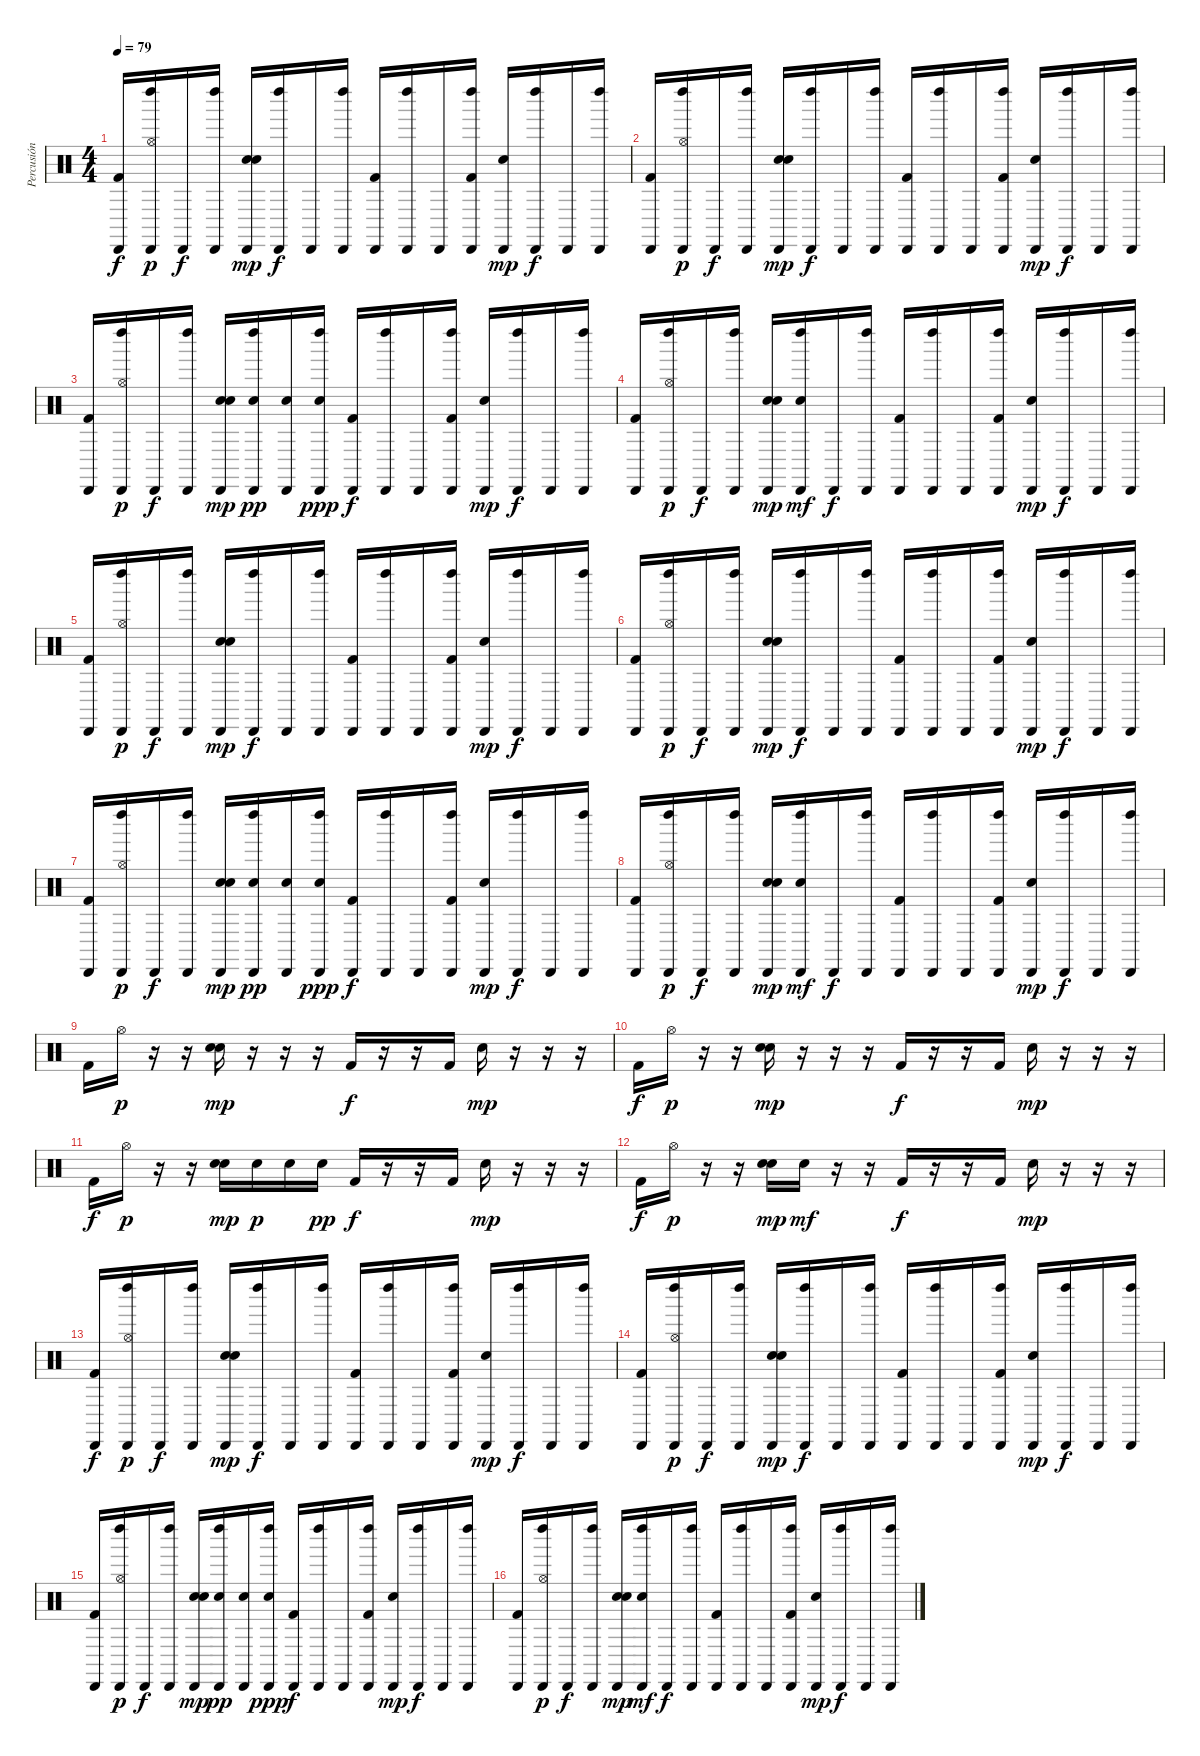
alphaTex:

\track ("Percusión" "Percusión") {instrument percussion}
\staff {score}
\articulation defaults
\ts (4 4)
\tempo 79
\clef neutral
\ks c
("Cabasa (hit)" "Kick (hit) 2").16{dy f} ("Cabasa (hit)" "Left Maraca (hit)" "Hi-Hat (open)").16{dy p} "Cabasa (hit)".16{dy f} ("Cabasa (hit)" "Left Maraca (hit)").16 ("Cabasa (hit)" "Electric Snare (hit)" "Snare (hit) 2").16{dy mp} ("Cabasa (hit)" "Left Maraca (hit)").16{dy f} "Cabasa (hit)".16 ("Cabasa (hit)" "Left Maraca (hit)").16 ("Cabasa (hit)" "Kick (hit) 2").16 ("Cabasa (hit)" "Left Maraca (hit)").16 "Cabasa (hit)".16 ("Cabasa (hit)" "Left Maraca (hit)" "Kick (hit) 2").16 ("Cabasa (hit)" "Electric Snare (hit)").16{dy mp} ("Cabasa (hit)" "Left Maraca (hit)").16{dy f} "Cabasa (hit)".16 ("Cabasa (hit)" "Left Maraca (hit)").16 |
("Cabasa (hit)" "Kick (hit) 2").16 ("Cabasa (hit)" "Left Maraca (hit)" "Hi-Hat (open)").16{dy p} "Cabasa (hit)".16{dy f} ("Cabasa (hit)" "Left Maraca (hit)").16 ("Cabasa (hit)" "Electric Snare (hit)" "Snare (hit) 2").16{dy mp} ("Cabasa (hit)" "Left Maraca (hit)").16{dy f} "Cabasa (hit)".16 ("Cabasa (hit)" "Left Maraca (hit)").16 ("Cabasa (hit)" "Kick (hit) 2").16 ("Cabasa (hit)" "Left Maraca (hit)").16 "Cabasa (hit)".16 ("Cabasa (hit)" "Left Maraca (hit)" "Kick (hit) 2").16 ("Cabasa (hit)" "Electric Snare (hit)").16{dy mp} ("Cabasa (hit)" "Left Maraca (hit)").16{dy f} "Cabasa (hit)".16 ("Cabasa (hit)" "Left Maraca (hit)").16 |
("Cabasa (hit)" "Kick (hit) 2").16 ("Cabasa (hit)" "Left Maraca (hit)" "Hi-Hat (open)").16{dy p} "Cabasa (hit)".16{dy f} ("Cabasa (hit)" "Left Maraca (hit)").16 ("Cabasa (hit)" "Electric Snare (hit)" "Snare (hit) 2").16{dy mp} ("Cabasa (hit)" "Left Maraca (hit)" "Electric Snare (hit)").16{dy pp} ("Cabasa (hit)" "Electric Snare (hit)").16 ("Cabasa (hit)" "Left Maraca (hit)" "Electric Snare (hit)").16{dy ppp} ("Cabasa (hit)" "Kick (hit) 2").16{dy f} ("Cabasa (hit)" "Left Maraca (hit)").16 "Cabasa (hit)".16 ("Cabasa (hit)" "Left Maraca (hit)" "Kick (hit) 2").16 ("Cabasa (hit)" "Electric Snare (hit)").16{dy mp} ("Cabasa (hit)" "Left Maraca (hit)").16{dy f} "Cabasa (hit)".16 ("Cabasa (hit)" "Left Maraca (hit)").16 |
("Cabasa (hit)" "Kick (hit) 2").16 ("Cabasa (hit)" "Left Maraca (hit)" "Hi-Hat (open)").16{dy p} "Cabasa (hit)".16{dy f} ("Cabasa (hit)" "Left Maraca (hit)").16 ("Cabasa (hit)" "Electric Snare (hit)" "Snare (hit) 2").16{dy mp} ("Cabasa (hit)" "Left Maraca (hit)" "Electric Snare (hit)").16{dy mf} "Cabasa (hit)".16{dy f} ("Cabasa (hit)" "Left Maraca (hit)").16 ("Cabasa (hit)" "Kick (hit) 2").16 ("Cabasa (hit)" "Left Maraca (hit)").16 "Cabasa (hit)".16 ("Cabasa (hit)" "Left Maraca (hit)" "Kick (hit) 2").16 ("Cabasa (hit)" "Electric Snare (hit)").16{dy mp} ("Cabasa (hit)" "Left Maraca (hit)").16{dy f} "Cabasa (hit)".16 ("Cabasa (hit)" "Left Maraca (hit)").16 |
("Cabasa (hit)" "Kick (hit) 2").16 ("Cabasa (hit)" "Left Maraca (hit)" "Hi-Hat (open)").16{dy p} "Cabasa (hit)".16{dy f} ("Cabasa (hit)" "Left Maraca (hit)").16 ("Cabasa (hit)" "Electric Snare (hit)" "Snare (hit) 2").16{dy mp} ("Cabasa (hit)" "Left Maraca (hit)").16{dy f} "Cabasa (hit)".16 ("Cabasa (hit)" "Left Maraca (hit)").16 ("Cabasa (hit)" "Kick (hit) 2").16 ("Cabasa (hit)" "Left Maraca (hit)").16 "Cabasa (hit)".16 ("Cabasa (hit)" "Left Maraca (hit)" "Kick (hit) 2").16 ("Cabasa (hit)" "Electric Snare (hit)").16{dy mp} ("Cabasa (hit)" "Left Maraca (hit)").16{dy f} "Cabasa (hit)".16 ("Cabasa (hit)" "Left Maraca (hit)").16 |
("Cabasa (hit)" "Kick (hit) 2").16 ("Cabasa (hit)" "Left Maraca (hit)" "Hi-Hat (open)").16{dy p} "Cabasa (hit)".16{dy f} ("Cabasa (hit)" "Left Maraca (hit)").16 ("Cabasa (hit)" "Electric Snare (hit)" "Snare (hit) 2").16{dy mp} ("Cabasa (hit)" "Left Maraca (hit)").16{dy f} "Cabasa (hit)".16 ("Cabasa (hit)" "Left Maraca (hit)").16 ("Cabasa (hit)" "Kick (hit) 2").16 ("Cabasa (hit)" "Left Maraca (hit)").16 "Cabasa (hit)".16 ("Cabasa (hit)" "Left Maraca (hit)" "Kick (hit) 2").16 ("Cabasa (hit)" "Electric Snare (hit)").16{dy mp} ("Cabasa (hit)" "Left Maraca (hit)").16{dy f} "Cabasa (hit)".16 ("Cabasa (hit)" "Left Maraca (hit)").16 |
("Cabasa (hit)" "Kick (hit) 2").16 ("Cabasa (hit)" "Left Maraca (hit)" "Hi-Hat (open)").16{dy p} "Cabasa (hit)".16{dy f} ("Cabasa (hit)" "Left Maraca (hit)").16 ("Cabasa (hit)" "Electric Snare (hit)" "Snare (hit) 2").16{dy mp} ("Cabasa (hit)" "Left Maraca (hit)" "Electric Snare (hit)").16{dy pp} ("Cabasa (hit)" "Electric Snare (hit)").16 ("Cabasa (hit)" "Left Maraca (hit)" "Electric Snare (hit)").16{dy ppp} ("Cabasa (hit)" "Kick (hit) 2").16{dy f} ("Cabasa (hit)" "Left Maraca (hit)").16 "Cabasa (hit)".16 ("Cabasa (hit)" "Left Maraca (hit)" "Kick (hit) 2").16 ("Cabasa (hit)" "Electric Snare (hit)").16{dy mp} ("Cabasa (hit)" "Left Maraca (hit)").16{dy f} "Cabasa (hit)".16 ("Cabasa (hit)" "Left Maraca (hit)").16 |
("Cabasa (hit)" "Kick (hit) 2").16 ("Cabasa (hit)" "Left Maraca (hit)" "Hi-Hat (open)").16{dy p} "Cabasa (hit)".16{dy f} ("Cabasa (hit)" "Left Maraca (hit)").16 ("Cabasa (hit)" "Electric Snare (hit)" "Snare (hit) 2").16{dy mp} ("Cabasa (hit)" "Left Maraca (hit)" "Electric Snare (hit)").16{dy mf} "Cabasa (hit)".16{dy f} ("Cabasa (hit)" "Left Maraca (hit)").16 ("Cabasa (hit)" "Kick (hit) 2").16 ("Cabasa (hit)" "Left Maraca (hit)").16 "Cabasa (hit)".16 ("Cabasa (hit)" "Left Maraca (hit)" "Kick (hit) 2").16 ("Cabasa (hit)" "Electric Snare (hit)").16{dy mp} ("Cabasa (hit)" "Left Maraca (hit)").16{dy f} "Cabasa (hit)".16 ("Cabasa (hit)" "Left Maraca (hit)").16 |
"Kick (hit) 2".16 "Hi-Hat (open)".16{dy p} r.16 r.16 ("Electric Snare (hit)" "Snare (hit) 2").16{dy mp} r.16 r.16 r.16 "Kick (hit) 2".16{dy f} r.16 r.16 "Kick (hit) 2".16 "Electric Snare (hit)".16{dy mp} r.16 r.16 r.16 |
"Kick (hit) 2".16{dy f} "Hi-Hat (open)".16{dy p} r.16 r.16 ("Electric Snare (hit)" "Snare (hit) 2").16{dy mp} r.16 r.16 r.16 "Kick (hit) 2".16{dy f} r.16 r.16 "Kick (hit) 2".16 "Electric Snare (hit)".16{dy mp} r.16 r.16 r.16 |
"Kick (hit) 2".16{dy f} "Hi-Hat (open)".16{dy p} r.16 r.16 ("Electric Snare (hit)" "Snare (hit) 2").16{dy mp} "Electric Snare (hit)".16{dy p} "Electric Snare (hit)".16 "Electric Snare (hit)".16{dy pp} "Kick (hit) 2".16{dy f} r.16 r.16 "Kick (hit) 2".16 "Electric Snare (hit)".16{dy mp} r.16 r.16 r.16 |
"Kick (hit) 2".16{dy f} "Hi-Hat (open)".16{dy p} r.16 r.16 ("Electric Snare (hit)" "Snare (hit) 2").16{dy mp} "Electric Snare (hit)".16{dy mf} r.16 r.16 "Kick (hit) 2".16{dy f} r.16 r.16 "Kick (hit) 2".16 "Electric Snare (hit)".16{dy mp} r.16 r.16 r.16 |
("Cabasa (hit)" "Kick (hit) 2").16{dy f} ("Cabasa (hit)" "Left Maraca (hit)" "Hi-Hat (open)").16{dy p} "Cabasa (hit)".16{dy f} ("Cabasa (hit)" "Left Maraca (hit)").16 ("Cabasa (hit)" "Electric Snare (hit)" "Snare (hit) 2").16{dy mp} ("Cabasa (hit)" "Left Maraca (hit)").16{dy f} "Cabasa (hit)".16 ("Cabasa (hit)" "Left Maraca (hit)").16 ("Cabasa (hit)" "Kick (hit) 2").16 ("Cabasa (hit)" "Left Maraca (hit)").16 "Cabasa (hit)".16 ("Cabasa (hit)" "Left Maraca (hit)" "Kick (hit) 2").16 ("Cabasa (hit)" "Electric Snare (hit)").16{dy mp} ("Cabasa (hit)" "Left Maraca (hit)").16{dy f} "Cabasa (hit)".16 ("Cabasa (hit)" "Left Maraca (hit)").16 |
("Cabasa (hit)" "Kick (hit) 2").16 ("Cabasa (hit)" "Left Maraca (hit)" "Hi-Hat (open)").16{dy p} "Cabasa (hit)".16{dy f} ("Cabasa (hit)" "Left Maraca (hit)").16 ("Cabasa (hit)" "Electric Snare (hit)" "Snare (hit) 2").16{dy mp} ("Cabasa (hit)" "Left Maraca (hit)").16{dy f} "Cabasa (hit)".16 ("Cabasa (hit)" "Left Maraca (hit)").16 ("Cabasa (hit)" "Kick (hit) 2").16 ("Cabasa (hit)" "Left Maraca (hit)").16 "Cabasa (hit)".16 ("Cabasa (hit)" "Left Maraca (hit)" "Kick (hit) 2").16 ("Cabasa (hit)" "Electric Snare (hit)").16{dy mp} ("Cabasa (hit)" "Left Maraca (hit)").16{dy f} "Cabasa (hit)".16 ("Cabasa (hit)" "Left Maraca (hit)").16 |
("Cabasa (hit)" "Kick (hit) 2").16 ("Cabasa (hit)" "Left Maraca (hit)" "Hi-Hat (open)").16{dy p} "Cabasa (hit)".16{dy f} ("Cabasa (hit)" "Left Maraca (hit)").16 ("Cabasa (hit)" "Electric Snare (hit)" "Snare (hit) 2").16{dy mp} ("Cabasa (hit)" "Left Maraca (hit)" "Electric Snare (hit)").16{dy pp} ("Cabasa (hit)" "Electric Snare (hit)").16 ("Cabasa (hit)" "Left Maraca (hit)" "Electric Snare (hit)").16{dy ppp} ("Cabasa (hit)" "Kick (hit) 2").16{dy f} ("Cabasa (hit)" "Left Maraca (hit)").16 "Cabasa (hit)".16 ("Cabasa (hit)" "Left Maraca (hit)" "Kick (hit) 2").16 ("Cabasa (hit)" "Electric Snare (hit)").16{dy mp} ("Cabasa (hit)" "Left Maraca (hit)").16{dy f} "Cabasa (hit)".16 ("Cabasa (hit)" "Left Maraca (hit)").16 |
("Cabasa (hit)" "Kick (hit) 2").16 ("Cabasa (hit)" "Left Maraca (hit)" "Hi-Hat (open)").16{dy p} "Cabasa (hit)".16{dy f} ("Cabasa (hit)" "Left Maraca (hit)").16 ("Cabasa (hit)" "Electric Snare (hit)" "Snare (hit) 2").16{dy mp} ("Cabasa (hit)" "Left Maraca (hit)" "Electric Snare (hit)").16{dy mf} "Cabasa (hit)".16{dy f} ("Cabasa (hit)" "Left Maraca (hit)").16 ("Cabasa (hit)" "Kick (hit) 2").16 ("Cabasa (hit)" "Left Maraca (hit)").16 "Cabasa (hit)".16 ("Cabasa (hit)" "Left Maraca (hit)" "Kick (hit) 2").16 ("Cabasa (hit)" "Electric Snare (hit)").16{dy mp} ("Cabasa (hit)" "Left Maraca (hit)").16{dy f} "Cabasa (hit)".16 ("Cabasa (hit)" "Left Maraca (hit)").16
